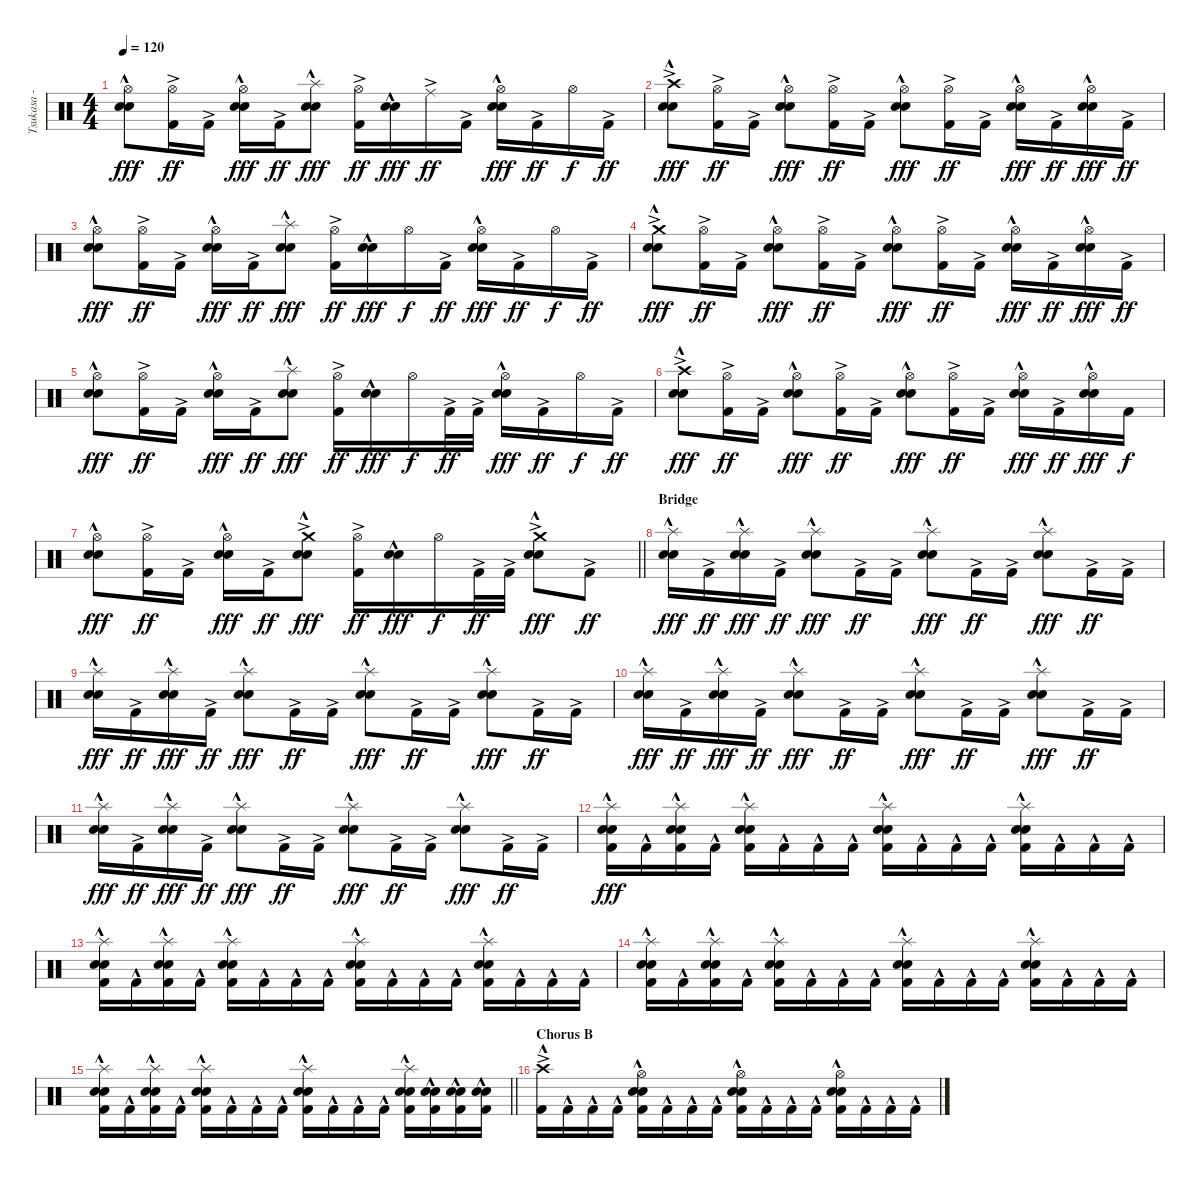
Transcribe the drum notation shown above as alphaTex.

\track ("Tsukasa - Drums" "Tsukasa - ") {instrument percussion}
\staff {score}
\articulation defaults
\ts (4 4)
\tempo 120
\clef neutral
\ks c
("Hi-Hat (open)" "Electric Snare (hit)"{hac} "Snare (hit) 2"{hac}).8{dy fff} ("Hi-Hat (open)" "Kick (hit) 2"{ac}).16{dy ff} "Kick (hit) 2"{ac}.16 ("Hi-Hat (open)" "Electric Snare (hit)"{hac} "Snare (hit) 2"{hac}).16{dy fff} "Kick (hit) 2"{ac}.16{dy ff} ("Splash (hit)"{hac} "Electric Snare (hit)"{hac} "Snare (hit) 2"{hac}).8{dy fff} ("Hi-Hat (open)" "Kick (hit) 2"{ac}).16{dy ff} ("Electric Snare (hit)"{hac} "Snare (hit) 2"{hac}).16{dy fff} "Ride (middle)"{ac}.16{dy ff} "Kick (hit) 2"{ac}.16 ("Hi-Hat (open)" "Electric Snare (hit)"{hac} "Snare (hit) 2"{hac}).16{dy fff} "Kick (hit) 2"{ac}.16{dy ff} "Hi-Hat (open)".16{dy f} "Kick (hit) 2"{ac}.16{dy ff} |
("Crash high (hit)"{ac} "Electric Snare (hit)"{hac} "Snare (hit) 2"{hac}).8{dy fff} ("Hi-Hat (open)" "Kick (hit) 2"{ac}).16{dy ff} "Kick (hit) 2"{ac}.16 ("Hi-Hat (open)" "Electric Snare (hit)"{hac} "Snare (hit) 2"{hac}).8{dy fff} ("Hi-Hat (open)" "Kick (hit) 2"{ac}).16{dy ff} "Kick (hit) 2"{ac}.16 ("Hi-Hat (open)" "Electric Snare (hit)"{hac} "Snare (hit) 2"{hac}).8{dy fff} ("Hi-Hat (open)" "Kick (hit) 2"{ac}).16{dy ff} "Kick (hit) 2"{ac}.16 ("Hi-Hat (open)" "Electric Snare (hit)"{hac} "Snare (hit) 2"{hac}).16{dy fff} "Kick (hit) 2"{ac}.16{dy ff} ("Hi-Hat (open)" "Electric Snare (hit)"{hac} "Snare (hit) 2"{hac}).16{dy fff} "Kick (hit) 2"{ac}.16{dy ff} |
("Hi-Hat (open)" "Electric Snare (hit)"{hac} "Snare (hit) 2"{hac}).8{dy fff} ("Hi-Hat (open)" "Kick (hit) 2"{ac}).16{dy ff} "Kick (hit) 2"{ac}.16 ("Hi-Hat (open)" "Electric Snare (hit)"{hac} "Snare (hit) 2"{hac}).16{dy fff} "Kick (hit) 2"{ac}.16{dy ff} ("Splash (hit)"{hac} "Electric Snare (hit)"{hac} "Snare (hit) 2"{hac}).8{dy fff} ("Hi-Hat (open)" "Kick (hit) 2"{ac}).16{dy ff} ("Electric Snare (hit)"{hac} "Snare (hit) 2"{hac}).16{dy fff} "Hi-Hat (open)".16{dy f} "Kick (hit) 2"{ac}.16{dy ff} ("Hi-Hat (open)" "Electric Snare (hit)"{hac} "Snare (hit) 2"{hac}).16{dy fff} "Kick (hit) 2"{ac}.16{dy ff} "Hi-Hat (open)".16{dy f} "Kick (hit) 2"{ac}.16{dy ff} |
("Crash medium (hit)"{ac} "Electric Snare (hit)"{hac} "Snare (hit) 2"{hac}).8{dy fff} ("Hi-Hat (open)" "Kick (hit) 2"{ac}).16{dy ff} "Kick (hit) 2"{ac}.16 ("Hi-Hat (open)" "Electric Snare (hit)"{hac} "Snare (hit) 2"{hac}).8{dy fff} ("Hi-Hat (open)" "Kick (hit) 2"{ac}).16{dy ff} "Kick (hit) 2"{ac}.16 ("Hi-Hat (open)" "Electric Snare (hit)"{hac} "Snare (hit) 2"{hac}).8{dy fff} ("Hi-Hat (open)" "Kick (hit) 2"{ac}).16{dy ff} "Kick (hit) 2"{ac}.16 ("Hi-Hat (open)" "Electric Snare (hit)"{hac} "Snare (hit) 2"{hac}).16{dy fff} "Kick (hit) 2"{ac}.16{dy ff} ("Hi-Hat (open)" "Electric Snare (hit)"{hac} "Snare (hit) 2"{hac}).16{dy fff} "Kick (hit) 2"{ac}.16{dy ff} |
("Hi-Hat (open)" "Electric Snare (hit)"{hac} "Snare (hit) 2"{hac}).8{dy fff} ("Hi-Hat (open)" "Kick (hit) 2"{ac}).16{dy ff} "Kick (hit) 2"{ac}.16 ("Hi-Hat (open)" "Electric Snare (hit)"{hac} "Snare (hit) 2"{hac}).16{dy fff} "Kick (hit) 2"{ac}.16{dy ff} ("Splash (hit)"{hac} "Electric Snare (hit)"{hac} "Snare (hit) 2"{hac}).8{dy fff} ("Hi-Hat (open)" "Kick (hit) 2"{ac}).16{dy ff} ("Electric Snare (hit)"{hac} "Snare (hit) 2"{hac}).16{dy fff} "Hi-Hat (open)".16{dy f} "Kick (hit) 2"{ac}.32{dy ff} "Kick (hit) 2"{ac}.32 ("Hi-Hat (open)" "Electric Snare (hit)"{hac} "Snare (hit) 2"{hac}).16{dy fff} "Kick (hit) 2"{ac}.16{dy ff} "Hi-Hat (open)".16{dy f} "Kick (hit) 2"{ac}.16{dy ff} |
("Crash high (hit)"{ac} "Electric Snare (hit)"{hac} "Snare (hit) 2"{hac}).8{dy fff} ("Hi-Hat (open)" "Kick (hit) 2"{ac}).16{dy ff} "Kick (hit) 2"{ac}.16 ("Hi-Hat (open)" "Electric Snare (hit)"{hac} "Snare (hit) 2"{hac}).8{dy fff} ("Hi-Hat (open)" "Kick (hit) 2"{ac}).16{dy ff} "Kick (hit) 2"{ac}.16 ("Hi-Hat (open)" "Electric Snare (hit)"{hac} "Snare (hit) 2"{hac}).8{dy fff} ("Hi-Hat (open)" "Kick (hit) 2"{ac}).16{dy ff} "Kick (hit) 2"{ac}.16 ("Hi-Hat (open)" "Electric Snare (hit)"{hac} "Snare (hit) 2"{hac}).16{dy fff} "Kick (hit) 2"{ac}.16{dy ff} ("Hi-Hat (open)" "Electric Snare (hit)"{hac} "Snare (hit) 2"{hac}).16{dy fff} "Kick (hit) 2".16{dy f} |
\barLineRight lightlight
("Hi-Hat (open)" "Electric Snare (hit)"{hac} "Snare (hit) 2"{hac}).8{dy fff} ("Hi-Hat (open)" "Kick (hit) 2"{ac}).16{dy ff} "Kick (hit) 2"{ac}.16 ("Hi-Hat (open)" "Electric Snare (hit)"{hac} "Snare (hit) 2"{hac}).16{dy fff} "Kick (hit) 2"{ac}.16{dy ff} ("Crash medium (hit)"{ac} "Electric Snare (hit)"{hac} "Snare (hit) 2"{hac}).8{dy fff} ("Hi-Hat (open)" "Kick (hit) 2"{ac}).16{dy ff} ("Electric Snare (hit)"{hac} "Snare (hit) 2"{hac}).16{dy fff} "Hi-Hat (open)".16{dy f} "Kick (hit) 2"{ac}.32{dy ff} "Kick (hit) 2"{ac}.32 ("Crash medium (hit)"{ac} "Electric Snare (hit)"{hac} "Snare (hit) 2"{hac}).8{dy fff} "Kick (hit) 2"{ac}.8{dy ff} |
\section ("" "Bridge")
("Splash (hit)"{hac} "Electric Snare (hit)"{hac} "Snare (hit) 2"{hac}).16{dy fff} "Kick (hit) 2"{ac}.16{dy ff} ("Splash (hit)"{hac} "Electric Snare (hit)"{hac} "Snare (hit) 2"{hac}).16{dy fff} "Kick (hit) 2"{ac}.16{dy ff} ("Splash (hit)"{hac} "Electric Snare (hit)"{hac} "Snare (hit) 2"{hac}).8{dy fff} "Kick (hit) 2"{ac}.16{dy ff} "Kick (hit) 2"{ac}.16 ("Splash (hit)"{hac} "Electric Snare (hit)"{hac} "Snare (hit) 2"{hac}).8{dy fff} "Kick (hit) 2"{ac}.16{dy ff} "Kick (hit) 2"{ac}.16 ("Splash (hit)"{hac} "Electric Snare (hit)"{hac} "Snare (hit) 2"{hac}).8{dy fff} "Kick (hit) 2"{ac}.16{dy ff} "Kick (hit) 2"{ac}.16 |
("Splash (hit)"{hac} "Electric Snare (hit)"{hac} "Snare (hit) 2"{hac}).16{dy fff} "Kick (hit) 2"{ac}.16{dy ff} ("Splash (hit)"{hac} "Electric Snare (hit)"{hac} "Snare (hit) 2"{hac}).16{dy fff} "Kick (hit) 2"{ac}.16{dy ff} ("Splash (hit)"{hac} "Electric Snare (hit)"{hac} "Snare (hit) 2"{hac}).8{dy fff} "Kick (hit) 2"{ac}.16{dy ff} "Kick (hit) 2"{ac}.16 ("Splash (hit)"{hac} "Electric Snare (hit)"{hac} "Snare (hit) 2"{hac}).8{dy fff} "Kick (hit) 2"{ac}.16{dy ff} "Kick (hit) 2"{ac}.16 ("Splash (hit)"{hac} "Electric Snare (hit)"{hac} "Snare (hit) 2"{hac}).8{dy fff} "Kick (hit) 2"{ac}.16{dy ff} "Kick (hit) 2"{ac}.16 |
("Splash (hit)"{hac} "Electric Snare (hit)"{hac} "Snare (hit) 2"{hac}).16{dy fff} "Kick (hit) 2"{ac}.16{dy ff} ("Splash (hit)"{hac} "Electric Snare (hit)"{hac} "Snare (hit) 2"{hac}).16{dy fff} "Kick (hit) 2"{ac}.16{dy ff} ("Splash (hit)"{hac} "Electric Snare (hit)"{hac} "Snare (hit) 2"{hac}).8{dy fff} "Kick (hit) 2"{ac}.16{dy ff} "Kick (hit) 2"{ac}.16 ("Splash (hit)"{hac} "Electric Snare (hit)"{hac} "Snare (hit) 2"{hac}).8{dy fff} "Kick (hit) 2"{ac}.16{dy ff} "Kick (hit) 2"{ac}.16 ("Splash (hit)"{hac} "Electric Snare (hit)"{hac} "Snare (hit) 2"{hac}).8{dy fff} "Kick (hit) 2"{ac}.16{dy ff} "Kick (hit) 2"{ac}.16 |
("Splash (hit)"{hac} "Electric Snare (hit)"{hac} "Snare (hit) 2"{hac}).16{dy fff} "Kick (hit) 2"{ac}.16{dy ff} ("Splash (hit)"{hac} "Electric Snare (hit)"{hac} "Snare (hit) 2"{hac}).16{dy fff} "Kick (hit) 2"{ac}.16{dy ff} ("Splash (hit)"{hac} "Electric Snare (hit)"{hac} "Snare (hit) 2"{hac}).8{dy fff} "Kick (hit) 2"{ac}.16{dy ff} "Kick (hit) 2"{ac}.16 ("Splash (hit)"{hac} "Electric Snare (hit)"{hac} "Snare (hit) 2"{hac}).8{dy fff} "Kick (hit) 2"{ac}.16{dy ff} "Kick (hit) 2"{ac}.16 ("Splash (hit)"{hac} "Electric Snare (hit)"{hac} "Snare (hit) 2"{hac}).8{dy fff} "Kick (hit) 2"{ac}.16{dy ff} "Kick (hit) 2"{ac}.16 |
("Splash (hit)"{hac} "Electric Snare (hit)"{hac} "Snare (hit) 2"{hac} "Kick (hit) 2"{hac}).16{dy fff} "Kick (hit) 2"{hac}.16 ("Splash (hit)"{hac} "Electric Snare (hit)"{hac} "Snare (hit) 2"{hac} "Kick (hit) 2"{hac}).16 "Kick (hit) 2"{hac}.16 ("Splash (hit)"{hac} "Electric Snare (hit)"{hac} "Snare (hit) 2"{hac} "Kick (hit) 2"{hac}).16 "Kick (hit) 2"{hac}.16 "Kick (hit) 2"{hac}.16 "Kick (hit) 2"{hac}.16 ("Splash (hit)"{hac} "Electric Snare (hit)"{hac} "Snare (hit) 2"{hac} "Kick (hit) 2"{hac}).16 "Kick (hit) 2"{hac}.16 "Kick (hit) 2"{hac}.16 "Kick (hit) 2"{hac}.16 ("Splash (hit)"{hac} "Electric Snare (hit)"{hac} "Snare (hit) 2"{hac} "Kick (hit) 2"{hac}).16 "Kick (hit) 2"{hac}.16 "Kick (hit) 2"{hac}.16 "Kick (hit) 2"{hac}.16 |
("Splash (hit)"{hac} "Electric Snare (hit)"{hac} "Snare (hit) 2"{hac} "Kick (hit) 2"{hac}).16 "Kick (hit) 2"{hac}.16 ("Splash (hit)"{hac} "Electric Snare (hit)"{hac} "Snare (hit) 2"{hac} "Kick (hit) 2"{hac}).16 "Kick (hit) 2"{hac}.16 ("Splash (hit)"{hac} "Electric Snare (hit)"{hac} "Snare (hit) 2"{hac} "Kick (hit) 2"{hac}).16 "Kick (hit) 2"{hac}.16 "Kick (hit) 2"{hac}.16 "Kick (hit) 2"{hac}.16 ("Splash (hit)"{hac} "Electric Snare (hit)"{hac} "Snare (hit) 2"{hac} "Kick (hit) 2"{hac}).16 "Kick (hit) 2"{hac}.16 "Kick (hit) 2"{hac}.16 "Kick (hit) 2"{hac}.16 ("Splash (hit)"{hac} "Electric Snare (hit)"{hac} "Snare (hit) 2"{hac} "Kick (hit) 2"{hac}).16 "Kick (hit) 2"{hac}.16 "Kick (hit) 2"{hac}.16 "Kick (hit) 2"{hac}.16 |
("Splash (hit)"{hac} "Electric Snare (hit)"{hac} "Snare (hit) 2"{hac} "Kick (hit) 2"{hac}).16 "Kick (hit) 2"{hac}.16 ("Splash (hit)"{hac} "Electric Snare (hit)"{hac} "Snare (hit) 2"{hac} "Kick (hit) 2"{hac}).16 "Kick (hit) 2"{hac}.16 ("Splash (hit)"{hac} "Electric Snare (hit)"{hac} "Snare (hit) 2"{hac} "Kick (hit) 2"{hac}).16 "Kick (hit) 2"{hac}.16 "Kick (hit) 2"{hac}.16 "Kick (hit) 2"{hac}.16 ("Splash (hit)"{hac} "Electric Snare (hit)"{hac} "Snare (hit) 2"{hac} "Kick (hit) 2"{hac}).16 "Kick (hit) 2"{hac}.16 "Kick (hit) 2"{hac}.16 "Kick (hit) 2"{hac}.16 ("Splash (hit)"{hac} "Electric Snare (hit)"{hac} "Snare (hit) 2"{hac} "Kick (hit) 2"{hac}).16 "Kick (hit) 2"{hac}.16 "Kick (hit) 2"{hac}.16 "Kick (hit) 2"{hac}.16 |
\barLineRight lightlight
("Splash (hit)"{hac} "Electric Snare (hit)"{hac} "Snare (hit) 2"{hac} "Kick (hit) 2"{hac}).16 "Kick (hit) 2"{hac}.16 ("Splash (hit)"{hac} "Electric Snare (hit)"{hac} "Snare (hit) 2"{hac} "Kick (hit) 2"{hac}).16 "Kick (hit) 2"{hac}.16 ("Splash (hit)"{hac} "Electric Snare (hit)"{hac} "Snare (hit) 2"{hac} "Kick (hit) 2"{hac}).16 "Kick (hit) 2"{hac}.16 "Kick (hit) 2"{hac}.16 "Kick (hit) 2"{hac}.16 ("Splash (hit)"{hac} "Electric Snare (hit)"{hac} "Snare (hit) 2"{hac} "Kick (hit) 2"{hac}).16 "Kick (hit) 2"{hac}.16 "Kick (hit) 2"{hac}.16 "Kick (hit) 2"{hac}.16 ("Splash (hit)"{hac} "Electric Snare (hit)"{hac} "Snare (hit) 2"{hac} "Kick (hit) 2"{hac}).16 ("Electric Snare (hit)"{hac} "Snare (hit) 2"{hac} "Kick (hit) 2"{hac}).16 ("Electric Snare (hit)"{hac} "Snare (hit) 2"{hac} "Kick (hit) 2"{hac}).16 ("Electric Snare (hit)"{hac} "Snare (hit) 2"{hac} "Kick (hit) 2"{hac}).16 |
\section ("" "Chorus B")
("Crash high (hit)"{ac} "Kick (hit) 2"{hac}).16 "Kick (hit) 2"{hac}.16 "Kick (hit) 2"{hac}.16 "Kick (hit) 2"{hac}.16 ("Hi-Hat (open)" "Electric Snare (hit)"{hac} "Snare (hit) 2"{hac} "Kick (hit) 2"{hac}).16 "Kick (hit) 2"{hac}.16 "Kick (hit) 2"{hac}.16 "Kick (hit) 2"{hac}.16 ("Hi-Hat (open)" "Electric Snare (hit)"{hac} "Snare (hit) 2"{hac} "Kick (hit) 2"{hac}).16 "Kick (hit) 2"{hac}.16 "Kick (hit) 2"{hac}.16 "Kick (hit) 2"{hac}.16 ("Hi-Hat (open)" "Electric Snare (hit)"{hac} "Snare (hit) 2"{hac} "Kick (hit) 2"{hac}).16 "Kick (hit) 2"{hac}.16 "Kick (hit) 2"{hac}.16 "Kick (hit) 2"{hac}.16
